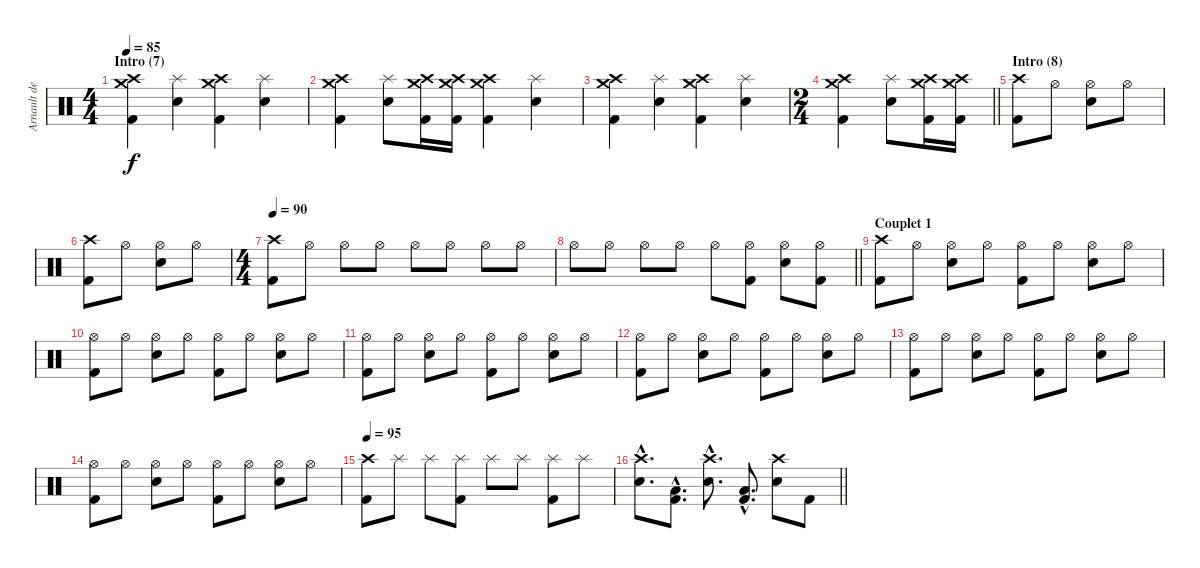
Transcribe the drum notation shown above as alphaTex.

\track ("Arnault de Staël" "Arnault de") {instrument percussion}
\staff {score}
\articulation defaults
\ts (4 4)
\section ("" "Intro (7)")
\tempo 85
\clef neutral
\ks c
("Crash high (hit)" "Crash medium (hit)" "Kick (hit) 2").4{dy f} ("Splash (hit)" "Electric Snare (hit)").4 ("Crash high (hit)" "Crash medium (hit)" "Kick (hit) 2").4 ("Splash (hit)" "Electric Snare (hit)").4 |
("Crash high (hit)" "Crash medium (hit)" "Kick (hit) 2").4 ("Splash (hit)" "Electric Snare (hit)").8 ("Crash high (hit)" "Crash medium (hit)" "Kick (hit) 2").16 ("Crash high (hit)" "Crash medium (hit)" "Kick (hit) 2").16 ("Crash high (hit)" "Crash medium (hit)" "Kick (hit) 2").4 ("Splash (hit)" "Electric Snare (hit)").4 |
("Crash high (hit)" "Crash medium (hit)" "Kick (hit) 2").4 ("Splash (hit)" "Electric Snare (hit)").4 ("Crash high (hit)" "Crash medium (hit)" "Kick (hit) 2").4 ("Splash (hit)" "Electric Snare (hit)").4 |
\ts (2 4)
\barLineRight lightlight
("Crash high (hit)" "Crash medium (hit)" "Kick (hit) 2").4 ("Splash (hit)" "Electric Snare (hit)").8 ("Crash high (hit)" "Crash medium (hit)" "Kick (hit) 2").16 ("Crash high (hit)" "Crash medium (hit)" "Kick (hit) 2").16 |
\section ("" "Intro (8)")
("Crash high (hit)" "Kick (hit) 2").8 "Hi-Hat (open)".8 ("Hi-Hat (open)" "Electric Snare (hit)").8 "Hi-Hat (open)".8 |
("Crash high (hit)" "Kick (hit) 2").8 "Hi-Hat (open)".8 ("Hi-Hat (open)" "Electric Snare (hit)").8 "Hi-Hat (open)".8 |
\ts (4 4)
\tempo 90
("Crash high (hit)" "Kick (hit) 2").8 "Hi-Hat (open)".8 "Hi-Hat (open)".8 "Hi-Hat (open)".8 "Hi-Hat (open)".8 "Hi-Hat (open)".8 "Hi-Hat (open)".8 "Hi-Hat (open)".8 |
\barLineRight lightlight "Hi-Hat (open)".8 "Hi-Hat (open)".8 "Hi-Hat (open)".8 "Hi-Hat (open)".8 "Hi-Hat (open)".8
("Hi-Hat (open)" "Kick (hit) 2").8 ("Hi-Hat (open)" "Electric Snare (hit)").8 ("Hi-Hat (open)" "Kick (hit) 2").8 |
\section ("" "Couplet 1")
("Crash high (hit)" "Kick (hit) 2").8 "Hi-Hat (open)".8 ("Hi-Hat (open)" "Electric Snare (hit)").8 "Hi-Hat (open)".8 ("Hi-Hat (open)" "Kick (hit) 2").8 "Hi-Hat (open)".8 ("Hi-Hat (open)" "Electric Snare (hit)").8 "Hi-Hat (open)".8 |
("Hi-Hat (open)" "Kick (hit) 2").8 "Hi-Hat (open)".8 ("Hi-Hat (open)" "Electric Snare (hit)").8 "Hi-Hat (open)".8 ("Hi-Hat (open)" "Kick (hit) 2").8 "Hi-Hat (open)".8 ("Hi-Hat (open)" "Electric Snare (hit)").8 "Hi-Hat (open)".8 |
("Hi-Hat (open)" "Kick (hit) 2").8 "Hi-Hat (open)".8 ("Hi-Hat (open)" "Electric Snare (hit)").8 "Hi-Hat (open)".8 ("Hi-Hat (open)" "Kick (hit) 2").8 "Hi-Hat (open)".8 ("Hi-Hat (open)" "Electric Snare (hit)").8 "Hi-Hat (open)".8 |
("Hi-Hat (open)" "Kick (hit) 2").8 "Hi-Hat (open)".8 ("Hi-Hat (open)" "Electric Snare (hit)").8 "Hi-Hat (open)".8 ("Hi-Hat (open)" "Kick (hit) 2").8 "Hi-Hat (open)".8 ("Hi-Hat (open)" "Electric Snare (hit)").8 "Hi-Hat (open)".8 |
("Hi-Hat (open)" "Kick (hit) 2").8 "Hi-Hat (open)".8 ("Hi-Hat (open)" "Electric Snare (hit)").8 "Hi-Hat (open)".8 ("Hi-Hat (open)" "Kick (hit) 2").8 "Hi-Hat (open)".8 ("Hi-Hat (open)" "Electric Snare (hit)").8 "Hi-Hat (open)".8 |
("Hi-Hat (open)" "Kick (hit) 2").8 "Hi-Hat (open)".8 ("Hi-Hat (open)" "Electric Snare (hit)").8 "Hi-Hat (open)".8 ("Hi-Hat (open)" "Kick (hit) 2").8 "Hi-Hat (open)".8 ("Hi-Hat (open)" "Electric Snare (hit)").8 "Hi-Hat (open)".8 |
\tempo 95
("Crash high (hit)" "Kick (hit) 2").8 "Splash (hit)".8 "Splash (hit)".8 ("Splash (hit)" "Kick (hit) 2").8 "Splash (hit)".8 "Splash (hit)".8 ("Splash (hit)" "Kick (hit) 2").8 "Splash (hit)".8 |
\barLineRight lightlight
("Crash high (hit)"{hac} "Electric Snare (hit)"{hac}).8{d} ("Low Floor Tom (hit)"{hac} "Kick (hit) 2"{hac}).8{d} ("Crash high (hit)"{hac} "Electric Snare (hit)"{hac}).8{d} ("Low Floor Tom (hit)"{hac} "Kick (hit) 2"{hac}).8{d} ("Crash high (hit)" "Electric Snare (hit)").8 "Kick (hit) 2".8
